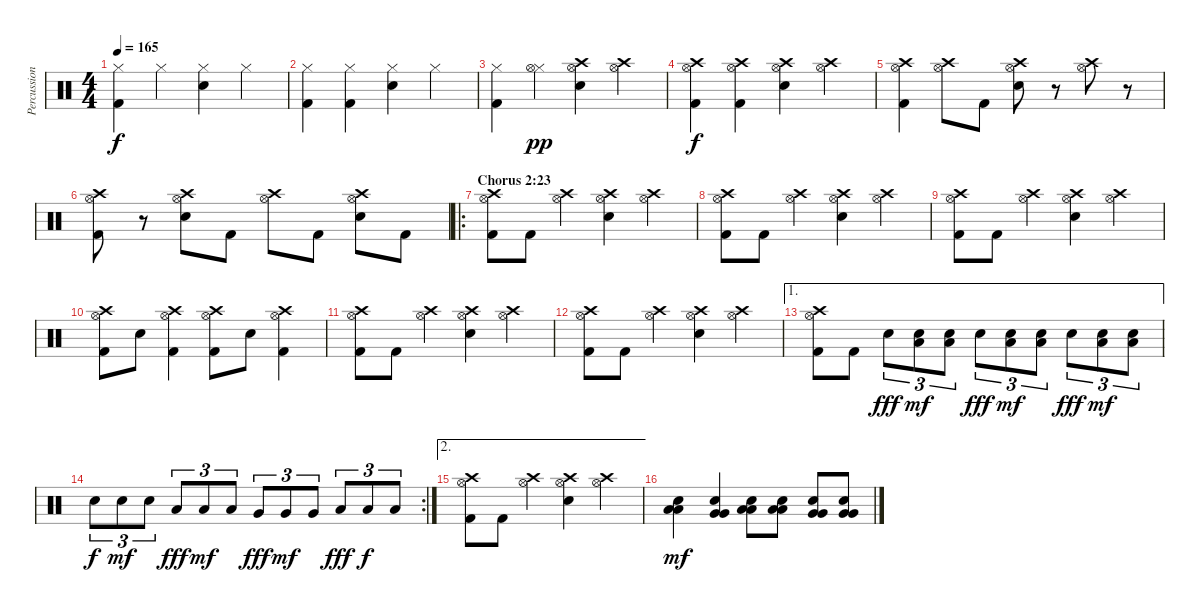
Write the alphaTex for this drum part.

\track ("Percussion" "Percussion") {instrument percussion}
\staff {score}
\articulation defaults
\ts (4 4)
\tempo 165
\clef neutral
\ks c
("Hi-Hat (closed)" "Kick (hit) 2").4{dy f} "Hi-Hat (closed)".4 ("Hi-Hat (closed)" "Electric Snare (hit)").4 "Hi-Hat (closed)".4 |
("Hi-Hat (closed)" "Kick (hit) 2").4 ("Hi-Hat (closed)" "Kick (hit) 2").4 ("Hi-Hat (closed)" "Electric Snare (hit)").4 "Hi-Hat (closed)".4 |
("Hi-Hat (closed)" "Kick (hit) 2").4 ("Hi-Hat (closed)" "Hi-Hat (open)").4{dy pp} ("Hi-Hat (open)" "Crash high (hit)" "Electric Snare (hit)").4 ("Hi-Hat (open)" "Crash high (hit)").4 |
("Hi-Hat (open)" "Crash high (hit)" "Kick (hit) 2").4{dy f} ("Hi-Hat (open)" "Crash high (hit)" "Kick (hit) 2").4 ("Hi-Hat (open)" "Crash high (hit)" "Electric Snare (hit)").4 ("Hi-Hat (open)" "Crash high (hit)").4 |
("Hi-Hat (open)" "Crash high (hit)" "Kick (hit) 2").4 ("Hi-Hat (open)" "Crash high (hit)").8 "Kick (hit) 2".8 ("Hi-Hat (open)" "Crash high (hit)" "Electric Snare (hit)").8 r.8 ("Hi-Hat (open)" "Crash high (hit)").8 r.8 |
("Hi-Hat (open)" "Crash high (hit)" "Kick (hit) 2").8 r.8 ("Hi-Hat (open)" "Crash high (hit)" "Electric Snare (hit)").8 "Kick (hit) 2".8 ("Hi-Hat (open)" "Crash high (hit)").8 "Kick (hit) 2".8 ("Hi-Hat (open)" "Crash high (hit)" "Electric Snare (hit)").8 "Kick (hit) 2".8 |
\ro
\section ("" "Chorus 2:23")
("Hi-Hat (open)" "Crash high (hit)" "Kick (hit) 2").8 "Kick (hit) 2".8 ("Hi-Hat (open)" "Crash high (hit)").4 ("Hi-Hat (open)" "Crash high (hit)" "Electric Snare (hit)").4 ("Hi-Hat (open)" "Crash high (hit)").4 |
("Hi-Hat (open)" "Crash high (hit)" "Kick (hit) 2").8 "Kick (hit) 2".8 ("Hi-Hat (open)" "Crash high (hit)").4 ("Hi-Hat (open)" "Crash high (hit)" "Electric Snare (hit)").4 ("Hi-Hat (open)" "Crash high (hit)").4 |
("Hi-Hat (open)" "Crash high (hit)" "Kick (hit) 2").8 "Kick (hit) 2".8 ("Hi-Hat (open)" "Crash high (hit)").4 ("Hi-Hat (open)" "Crash high (hit)" "Electric Snare (hit)").4 ("Hi-Hat (open)" "Crash high (hit)").4 |
("Hi-Hat (open)" "Crash high (hit)" "Kick (hit) 2").8 "Electric Snare (hit)".8 ("Hi-Hat (open)" "Crash high (hit)" "Kick (hit) 2").4 ("Hi-Hat (open)" "Crash high (hit)" "Kick (hit) 2").8 "Electric Snare (hit)".8 ("Hi-Hat (open)" "Crash high (hit)" "Kick (hit) 2").4 |
("Hi-Hat (open)" "Crash high (hit)" "Kick (hit) 2").8 "Kick (hit) 2".8 ("Hi-Hat (open)" "Crash high (hit)").4 ("Hi-Hat (open)" "Crash high (hit)" "Electric Snare (hit)").4 ("Hi-Hat (open)" "Crash high (hit)").4 |
("Hi-Hat (open)" "Crash high (hit)" "Kick (hit) 2").8 "Kick (hit) 2".8 ("Hi-Hat (open)" "Crash high (hit)").4 ("Hi-Hat (open)" "Crash high (hit)" "Electric Snare (hit)").4 ("Hi-Hat (open)" "Crash high (hit)").4 |
\ae 1
("Hi-Hat (open)" "Crash high (hit)" "Kick (hit) 2").8 "Kick (hit) 2".8 "Electric Snare (hit)".8{tu (3 2) dy fff} ("Electric Snare (hit)" "Low Tom (hit)").8{tu (3 2) dy mf} ("Electric Snare (hit)" "Low Tom (hit)").8{tu (3 2)} "Electric Snare (hit)".8{tu (3 2) dy fff} ("Electric Snare (hit)" "Low Tom (hit)").8{tu (3 2) dy mf} ("Electric Snare (hit)" "Low Tom (hit)").8{tu (3 2)} "Electric Snare (hit)".8{tu (3 2) dy fff} ("Electric Snare (hit)" "Low Tom (hit)").8{tu (3 2) dy mf} ("Electric Snare (hit)" "Low Tom (hit)").8{tu (3 2)} |
\rc 2 "Electric Snare (hit)".8{tu (3 2) dy f} "Electric Snare (hit)".8{tu (3 2) dy mf} "Electric Snare (hit)".8{tu (3 2)} "Low Tom (hit)".8{tu (3 2) dy fff} "Low Tom (hit)".8{tu (3 2) dy mf} "Low Tom (hit)".8{tu (3 2)} "Very Low Tom (hit)".8{tu (3 2) dy fff} "Very Low Tom (hit)".8{tu (3 2) dy mf} "Very Low Tom (hit)".8{tu (3 2)} "Low Floor Tom (hit)".8{tu (3 2) dy fff} "Low Floor Tom (hit)".8{tu (3 2) dy f} "Low Floor Tom (hit)".8{tu (3 2)}
|
\ae 2
("Hi-Hat (open)" "Crash high (hit)" "Kick (hit) 2").8 "Kick (hit) 2".8 ("Hi-Hat (open)" "Crash high (hit)").4 ("Hi-Hat (open)" "Crash high (hit)" "Electric Snare (hit)").4 ("Hi-Hat (open)" "Crash high (hit)").4 |
("Low Tom (hit)" "Low Tom (hit)" "Electric Snare (hit)").4{dy mf} ("Very Low Tom (hit)" "Very Low Tom (hit)" "Electric Snare (hit)").4 ("Low Tom (hit)" "Low Tom (hit)" "Electric Snare (hit)").8 ("Low Tom (hit)" "Low Tom (hit)" "Electric Snare (hit)").8 ("Very Low Tom (hit)" "Very Low Tom (hit)" "Electric Snare (hit)").8 ("Very Low Tom (hit)" "Very Low Tom (hit)" "Electric Snare (hit)").8
